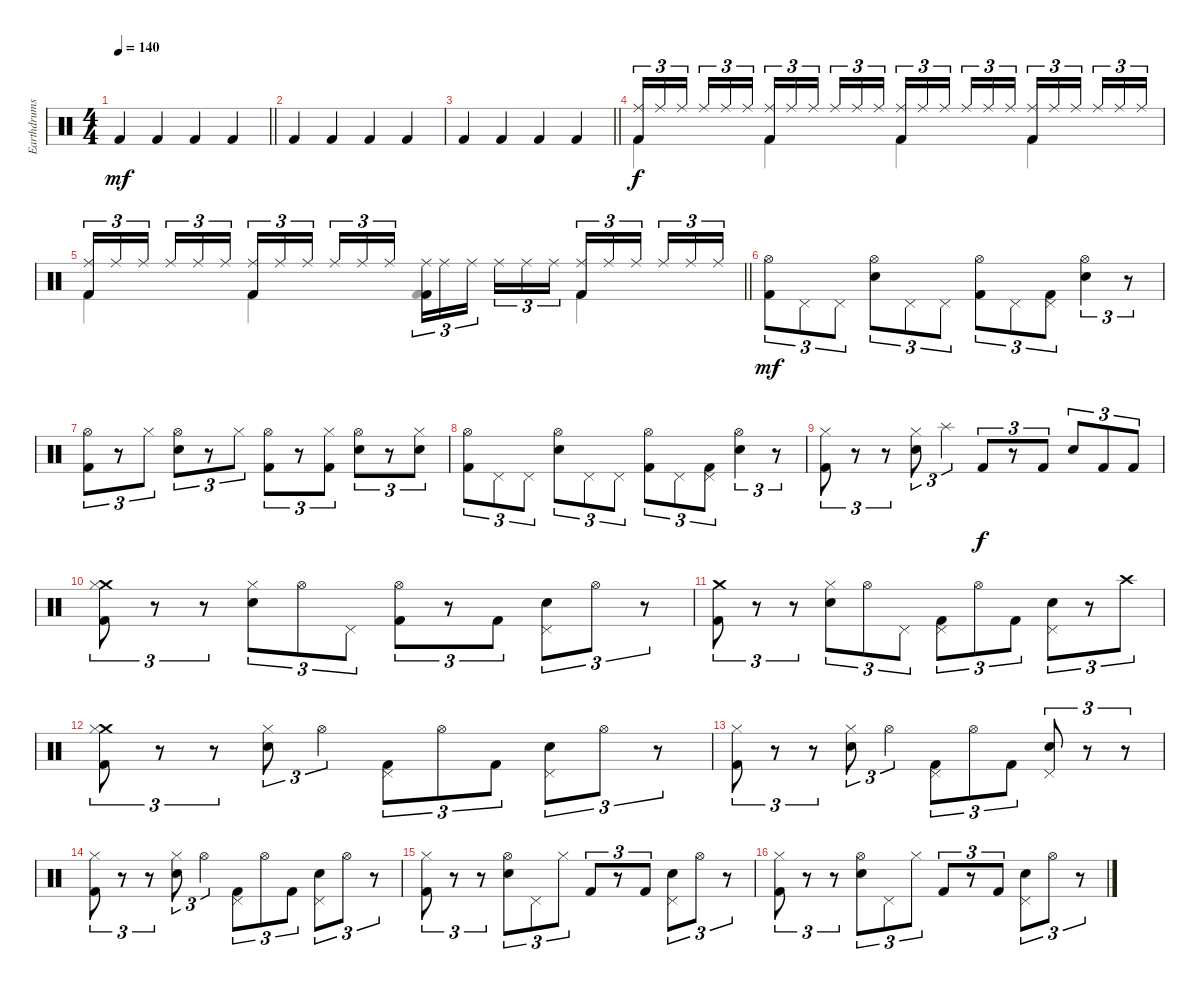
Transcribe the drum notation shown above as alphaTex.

\track ("Earthdrums" "Earthdrums") {instrument percussion}
\staff {score}
\articulation defaults
\voice
\ts (4 4)
\tempo 140
\clef neutral
\barLineRight lightlight
\ks c "Kick (hit) 2".4{dy mf} "Kick (hit) 2".4 "Kick (hit) 2".4 "Kick (hit) 2".4
|
"Kick (hit) 2".4 "Kick (hit) 2".4 "Kick (hit) 2".4 "Kick (hit) 2".4 |
\barLineRight lightlight "Kick (hit) 2".4 "Kick (hit) 2".4 "Kick (hit) 2".4 "Kick (hit) 2".4
|
("Ride (middle)" "Kick (hit) 2").16{tu (3 2) dy f volume 3} "Ride (middle)".16{tu (3 2)} "Ride (middle)".16{tu (3 2) beam splitsecondary} "Ride (middle)".16{tu (3 2)} "Ride (middle)".16{tu (3 2)} "Ride (middle)".16{tu (3 2)} ("Ride (middle)" "Kick (hit) 2").16{tu (3 2)} "Ride (middle)".16{tu (3 2)} "Ride (middle)".16{tu (3 2) beam splitsecondary} "Ride (middle)".16{tu (3 2) volume 16} "Ride (middle)".16{tu (3 2)} "Ride (middle)".16{tu (3 2)} ("Ride (middle)" "Kick (hit) 2").16{tu (3 2) volume 3} "Ride (middle)".16{tu (3 2)} "Ride (middle)".16{tu (3 2) beam splitsecondary} "Ride (middle)".16{tu (3 2)} "Ride (middle)".16{tu (3 2)} "Ride (middle)".16{tu (3 2)} ("Ride (middle)" "Kick (hit) 2").16{tu (3 2)} "Ride (middle)".16{tu (3 2)} "Ride (middle)".16{tu (3 2) beam splitsecondary} "Ride (middle)".16{tu (3 2) volume 16} "Ride (middle)".16{tu (3 2)} "Ride (middle)".16{tu (3 2)} |
\barLineRight lightlight
("Ride (middle)" "Kick (hit) 2").16{tu (3 2)} "Ride (middle)".16{tu (3 2)} "Ride (middle)".16{tu (3 2) beam splitsecondary} "Ride (middle)".16{tu (3 2)} "Ride (middle)".16{tu (3 2)} "Ride (middle)".16{tu (3 2)} ("Ride (middle)" "Kick (hit) 2").16{tu (3 2)} "Ride (middle)".16{tu (3 2)} "Ride (middle)".16{tu (3 2) beam splitsecondary} "Ride (middle)".16{tu (3 2)} "Ride (middle)".16{tu (3 2)} "Ride (middle)".16{tu (3 2)} ("Ride (middle)" "Kick (hit) 2").16{tu (3 2) beam Down} "Ride (middle)".16{tu (3 2) beam Down} "Ride (middle)".16{tu (3 2) beam Down beam splitsecondary} "Ride (middle)".16{tu (3 2) beam Down} "Ride (middle)".16{tu (3 2) beam Down} "Ride (middle)".16{tu (3 2) beam Down} ("Ride (middle)" "Kick (hit) 2").16{tu (3 2)} "Ride (middle)".16{tu (3 2)} "Ride (middle)".16{tu (3 2) beam splitsecondary} "Ride (middle)".16{tu (3 2)} "Ride (middle)".16{tu (3 2)} "Ride (middle)".16{tu (3 2)} |
("Hi-Hat (open)" "Kick (hit) 2").8{tu (3 2) dy mf} "Pedal Hi-Hat (hit)".8{tu (3 2)} "Pedal Hi-Hat (hit)".8{tu (3 2)} ("Hi-Hat (open)" "Snare (hit) 2").8{tu (3 2)} "Pedal Hi-Hat (hit)".8{tu (3 2)} "Pedal Hi-Hat (hit)".8{tu (3 2)} ("Hi-Hat (open)" "Kick (hit) 2").8{tu (3 2)} "Pedal Hi-Hat (hit)".8{tu (3 2)} ("Pedal Hi-Hat (hit)" "Kick (hit) 2").8{tu (3 2)} ("Hi-Hat (open)" "Snare (hit) 2").4{tu (3 2)} r.8{tu (3 2)} |
("Hi-Hat (open)" "Kick (hit) 2").8{tu (3 2)} r.8{tu (3 2)} "Hi-Hat (closed)".8{tu (3 2)} ("Hi-Hat (open)" "Snare (hit) 2").8{tu (3 2)} r.8{tu (3 2)} "Hi-Hat (closed)".8{tu (3 2)} ("Hi-Hat (open)" "Kick (hit) 2").8{tu (3 2)} r.8{tu (3 2)} ("Hi-Hat (closed)" "Kick (hit) 2").8{tu (3 2)} ("Hi-Hat (open)" "Snare (hit) 2").8{tu (3 2)} r.8{tu (3 2)} ("Hi-Hat (closed)" "Snare (hit) 2").8{tu (3 2)} |
("Hi-Hat (open)" "Kick (hit) 2").8{tu (3 2)} "Pedal Hi-Hat (hit)".8{tu (3 2)} "Pedal Hi-Hat (hit)".8{tu (3 2)} ("Hi-Hat (open)" "Snare (hit) 2").8{tu (3 2)} "Pedal Hi-Hat (hit)".8{tu (3 2)} "Pedal Hi-Hat (hit)".8{tu (3 2)} ("Hi-Hat (open)" "Kick (hit) 2").8{tu (3 2)} "Pedal Hi-Hat (hit)".8{tu (3 2)} ("Pedal Hi-Hat (hit)" "Kick (hit) 2").8{tu (3 2)} ("Hi-Hat (open)" "Snare (hit) 2").4{tu (3 2)} r.8{tu (3 2)} |
("Hi-Hat (closed)" "Kick (hit) 2").8{tu (3 2)} r.8{tu (3 2)} r.8{tu (3 2)} ("Hi-Hat (closed)" "Snare (hit) 2").8{tu (3 2)} "Splash (hit)".4{tu (3 2)} "Kick (hit) 2".8{tu (3 2) dy f} r.8{tu (3 2)} "Kick (hit) 2".8{tu (3 2)} "Snare (hit) 2".8{tu (3 2)} "Kick (hit) 2".8{tu (3 2)} "Kick (hit) 2".8{tu (3 2)} |
("Crash medium (hit)" "Hi-Hat (closed)" "Kick (hit) 2").8{tu (3 2)} r.8{tu (3 2)} r.8{tu (3 2)} ("Hi-Hat (closed)" "Snare (hit) 2").8{tu (3 2)} "Hi-Hat (open)".8{tu (3 2)} "Pedal Hi-Hat (hit)".8{tu (3 2)} ("Hi-Hat (open)" "Kick (hit) 2").8{tu (3 2)} r.8{tu (3 2)} "Kick (hit) 2".8{tu (3 2)} ("Pedal Hi-Hat (hit)" "Snare (hit) 2").8{tu (3 2)} "Hi-Hat (open)".8{tu (3 2)} r.8{tu (3 2)} |
("Crash medium (hit)" "Kick (hit) 2").8{tu (3 2)} r.8{tu (3 2)} r.8{tu (3 2)} ("Hi-Hat (closed)" "Snare (hit) 2").8{tu (3 2)} "Hi-Hat (open)".8{tu (3 2)} "Pedal Hi-Hat (hit)".8{tu (3 2)} ("Pedal Hi-Hat (hit)" "Kick (hit) 2").8{tu (3 2)} "Hi-Hat (open)".8{tu (3 2)} "Kick (hit) 2".8{tu (3 2)} ("Pedal Hi-Hat (hit)" "Snare (hit) 2").8{tu (3 2)} r.8{tu (3 2)} "Crash high (hit)".8{tu (3 2)} |
("Crash medium (hit)" "Hi-Hat (closed)" "Kick (hit) 2").8{tu (3 2)} r.8{tu (3 2)} r.8{tu (3 2)} ("Hi-Hat (closed)" "Snare (hit) 2").8{tu (3 2)} "Hi-Hat (open)".4{tu (3 2)} ("Pedal Hi-Hat (hit)" "Kick (hit) 2").8{tu (3 2)} "Hi-Hat (open)".8{tu (3 2)} "Kick (hit) 2".8{tu (3 2)} ("Pedal Hi-Hat (hit)" "Snare (hit) 2").8{tu (3 2)} "Hi-Hat (open)".8{tu (3 2)} r.8{tu (3 2)} |
("Hi-Hat (closed)" "Kick (hit) 2").8{tu (3 2)} r.8{tu (3 2)} r.8{tu (3 2)} ("Hi-Hat (closed)" "Snare (hit) 2").8{tu (3 2)} "Hi-Hat (open)".4{tu (3 2)} ("Pedal Hi-Hat (hit)" "Kick (hit) 2").8{tu (3 2)} "Hi-Hat (open)".8{tu (3 2)} "Kick (hit) 2".8{tu (3 2)} ("Pedal Hi-Hat (hit)" "Snare (hit) 2").8{tu (3 2)} r.8{tu (3 2)} r.8{tu (3 2)} |
("Hi-Hat (closed)" "Kick (hit) 2").8{tu (3 2)} r.8{tu (3 2)} r.8{tu (3 2)} ("Hi-Hat (closed)" "Snare (hit) 2").8{tu (3 2)} "Hi-Hat (open)".4{tu (3 2)} ("Pedal Hi-Hat (hit)" "Kick (hit) 2").8{tu (3 2)} "Hi-Hat (open)".8{tu (3 2)} "Kick (hit) 2".8{tu (3 2)} ("Pedal Hi-Hat (hit)" "Snare (hit) 2").8{tu (3 2)} "Hi-Hat (open)".8{tu (3 2)} r.8{tu (3 2)} |
("Hi-Hat (closed)" "Kick (hit) 2").8{tu (3 2)} r.8{tu (3 2)} r.8{tu (3 2)} ("Hi-Hat (open)" "Snare (hit) 2").8{tu (3 2)} "Pedal Hi-Hat (hit)".8{tu (3 2)} "Hi-Hat (closed)".8{tu (3 2)} "Kick (hit) 2".8{tu (3 2)} r.8{tu (3 2)} "Kick (hit) 2".8{tu (3 2)} ("Pedal Hi-Hat (hit)" "Snare (hit) 2").8{tu (3 2)} "Hi-Hat (open)".8{tu (3 2)} r.8{tu (3 2)} |
("Hi-Hat (closed)" "Kick (hit) 2").8{tu (3 2)} r.8{tu (3 2)} r.8{tu (3 2)} ("Hi-Hat (open)" "Snare (hit) 2").8{tu (3 2)} "Pedal Hi-Hat (hit)".8{tu (3 2)} "Hi-Hat (closed)".8{tu (3 2)} "Kick (hit) 2".8{tu (3 2)} r.8{tu (3 2)} "Kick (hit) 2".8{tu (3 2)} ("Pedal Hi-Hat (hit)" "Snare (hit) 2").8{tu (3 2)} "Hi-Hat (open)".8{tu (3 2)} r.8{tu (3 2)}
\voice
\clef neutral
\ottava regular
\simile none
\barLineRight lightlight
\ks c
|
|
\barLineRight lightlight
|
"Kick (hit) 2".4 "Kick (hit) 2".4 "Kick (hit) 2".4 "Kick (hit) 2".4 |
\barLineRight lightlight "Kick (hit) 2".4 "Kick (hit) 2".4 "Kick (hit) 2".4 "Kick (hit) 2".4
|
|
|
|
|
|
|
|
|
|
|
